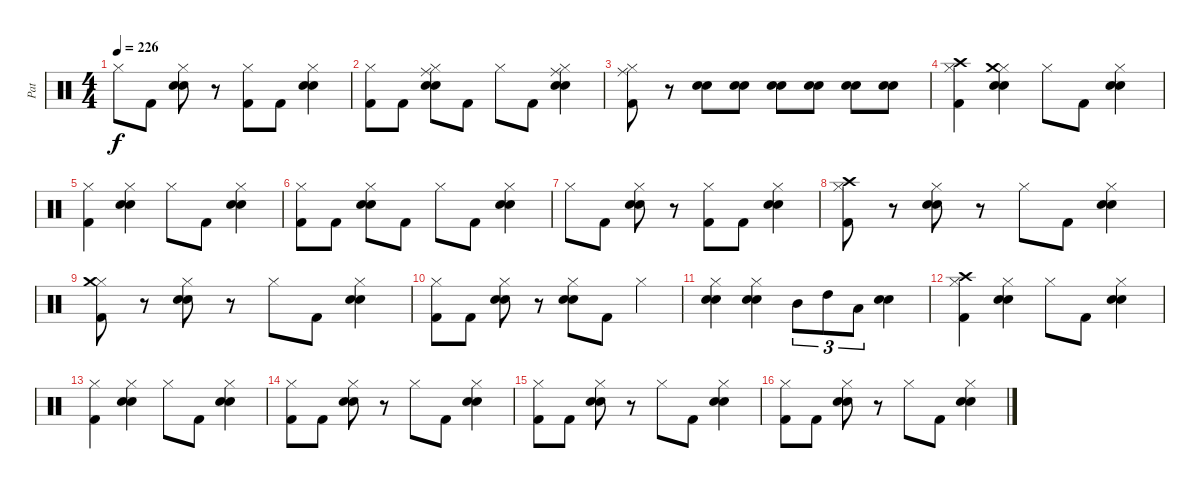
\track ("Pat" "Pat") {instrument percussion}
\staff {score}
\articulation defaults
\ts (4 4)
\tempo 226
\clef neutral
\ks c "Hi-Hat (closed)".8{dy f} "Kick (hit) 2".8
("Hi-Hat (closed)" "Snare (hit) 2" "Electric Snare (hit)").8 r.8 ("Hi-Hat (closed)" "Kick (hit) 2").8 "Kick (hit) 2".8 ("Hi-Hat (closed)" "Snare (hit) 2" "Electric Snare (hit)").4 |
("Hi-Hat (closed)" "Kick (hit) 2").8 "Kick (hit) 2".8 ("Hi-Hat (closed)" "Ride (middle)" "Snare (hit) 2" "Electric Snare (hit)").8 "Kick (hit) 2".8 "Hi-Hat (closed)".8 "Kick (hit) 2".8 ("Hi-Hat (closed)" "Ride (middle)" "Snare (hit) 2" "Electric Snare (hit)").4 |
("Hi-Hat (closed)" "Ride (middle)" "Kick (hit) 2").8 r.8 ("Snare (hit) 2" "Electric Snare (hit)").8 ("Snare (hit) 2" "Electric Snare (hit)").8 ("Snare (hit) 2" "Electric Snare (hit)").8 ("Snare (hit) 2" "Electric Snare (hit)").8 ("Snare (hit) 2" "Electric Snare (hit)").8 ("Snare (hit) 2" "Electric Snare (hit)").8 |
("Hi-Hat (closed)" "Crash high (hit)" "Kick (hit) 2").4 ("Hi-Hat (closed)" "Crash medium (hit)" "Snare (hit) 2" "Electric Snare (hit)").4 "Hi-Hat (closed)".8 "Kick (hit) 2".8 ("Hi-Hat (closed)" "Snare (hit) 2" "Electric Snare (hit)").4 |
("Hi-Hat (closed)" "Kick (hit) 2").4 ("Hi-Hat (closed)" "Snare (hit) 2" "Electric Snare (hit)").4 "Hi-Hat (closed)".8 "Kick (hit) 2".8 ("Hi-Hat (closed)" "Snare (hit) 2" "Electric Snare (hit)").4 |
("Hi-Hat (closed)" "Kick (hit) 2").8 "Kick (hit) 2".8 ("Hi-Hat (closed)" "Snare (hit) 2" "Electric Snare (hit)").8 "Kick (hit) 2".8 "Hi-Hat (closed)".8 "Kick (hit) 2".8 ("Hi-Hat (closed)" "Snare (hit) 2" "Electric Snare (hit)").4 |
"Hi-Hat (closed)".8 "Kick (hit) 2".8 ("Hi-Hat (closed)" "Snare (hit) 2" "Electric Snare (hit)").8 r.8 ("Hi-Hat (closed)" "Kick (hit) 2").8 "Kick (hit) 2".8 ("Hi-Hat (closed)" "Snare (hit) 2" "Electric Snare (hit)").4 |
("Hi-Hat (closed)" "Crash high (hit)" "Kick (hit) 2").8 r.8 ("Hi-Hat (closed)" "Snare (hit) 2" "Electric Snare (hit)").8 r.8 "Hi-Hat (closed)".8 "Kick (hit) 2".8 ("Hi-Hat (closed)" "Snare (hit) 2" "Electric Snare (hit)").4 |
("Hi-Hat (closed)" "Crash medium (hit)" "Kick (hit) 2").8 r.8 ("Hi-Hat (closed)" "Snare (hit) 2" "Electric Snare (hit)").8 r.8 "Hi-Hat (closed)".8 "Kick (hit) 2".8 ("Hi-Hat (closed)" "Snare (hit) 2" "Electric Snare (hit)").4 |
("Hi-Hat (closed)" "Kick (hit) 2").8 "Kick (hit) 2".8 ("Hi-Hat (closed)" "Snare (hit) 2" "Electric Snare (hit)").8 r.8 ("Hi-Hat (closed)" "Snare (hit) 2" "Electric Snare (hit)").8 "Kick (hit) 2".8 "Hi-Hat (closed)".4 |
("Hi-Hat (closed)" "Snare (hit) 2" "Electric Snare (hit)").4 ("Hi-Hat (closed)" "Snare (hit) 2" "Electric Snare (hit)").4 "Mid Tom (hit)".8{tu (3 2)} "High Tom (hit)".8{tu (3 2)} "Low Tom (hit)".8{tu (3 2)} ("Snare (hit) 2" "Electric Snare (hit)").4 |
("Hi-Hat (closed)" "Crash high (hit)" "Kick (hit) 2").4 ("Hi-Hat (closed)" "Snare (hit) 2" "Electric Snare (hit)").4 "Hi-Hat (closed)".8 "Kick (hit) 2".8 ("Hi-Hat (closed)" "Snare (hit) 2" "Electric Snare (hit)").4 |
("Hi-Hat (closed)" "Kick (hit) 2").4 ("Hi-Hat (closed)" "Snare (hit) 2" "Electric Snare (hit)").4 "Hi-Hat (closed)".8 "Kick (hit) 2".8 ("Hi-Hat (closed)" "Snare (hit) 2" "Electric Snare (hit)").4 |
("Hi-Hat (closed)" "Kick (hit) 2").8 "Kick (hit) 2".8 ("Hi-Hat (closed)" "Snare (hit) 2" "Electric Snare (hit)").8 r.8 "Hi-Hat (closed)".8 "Kick (hit) 2".8 ("Hi-Hat (closed)" "Snare (hit) 2" "Electric Snare (hit)").4 |
("Hi-Hat (closed)" "Kick (hit) 2").8 "Kick (hit) 2".8 ("Hi-Hat (closed)" "Snare (hit) 2" "Electric Snare (hit)").8 r.8 "Hi-Hat (closed)".8 "Kick (hit) 2".8 ("Hi-Hat (closed)" "Snare (hit) 2" "Electric Snare (hit)").4 |
("Hi-Hat (closed)" "Kick (hit) 2").8 "Kick (hit) 2".8 ("Hi-Hat (closed)" "Snare (hit) 2" "Electric Snare (hit)").8 r.8 "Hi-Hat (closed)".8 "Kick (hit) 2".8 ("Hi-Hat (closed)" "Snare (hit) 2" "Electric Snare (hit)").4
